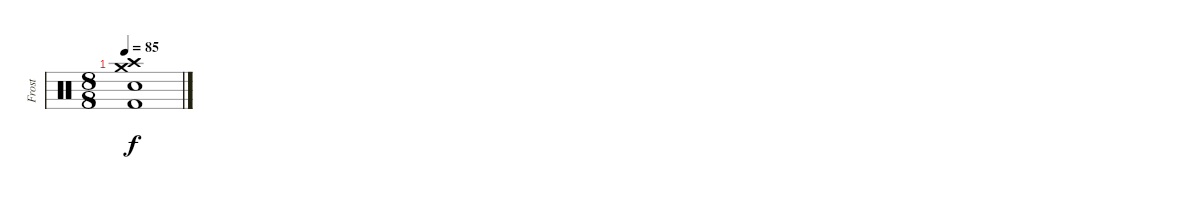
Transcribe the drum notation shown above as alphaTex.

\track ("Frost" "Frost") {instrument percussion}
\staff {score}
\articulation defaults
\ts (8 8)
\tempo 85
\clef neutral
\ks c
("Crash high (hit)" "Crash medium (hit)" "Kick (hit) 2" "Electric Snare (hit)").1{dy f}
